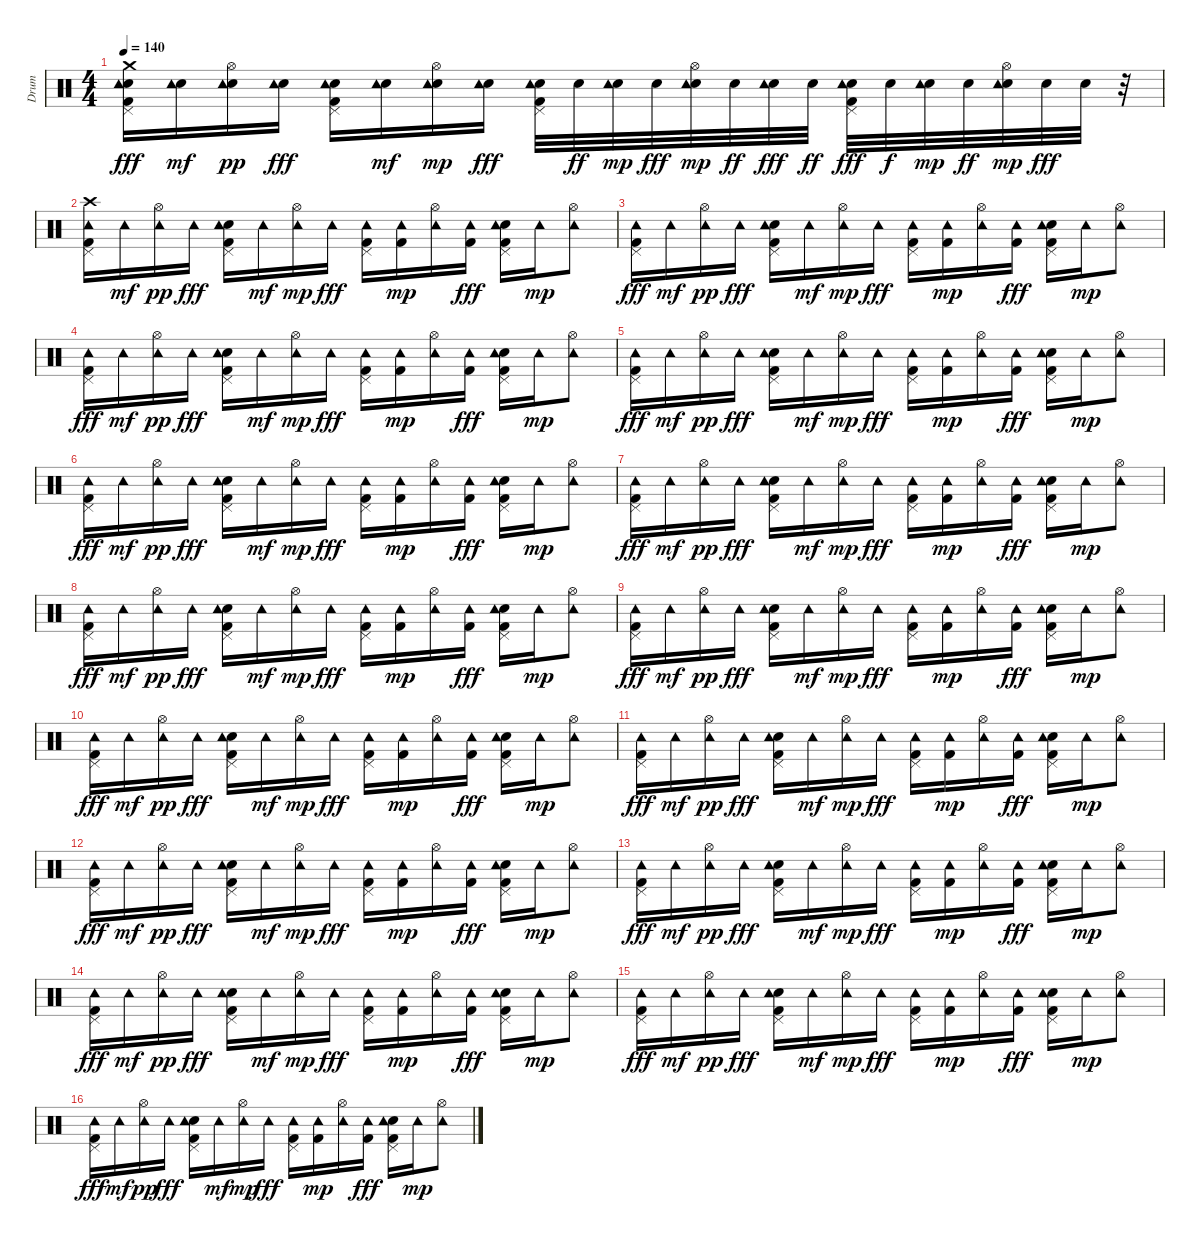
\track ("Drum" "Drum") {instrument percussion}
\staff {score}
\articulation defaults
\ts (4 4)
\tempo 140
\clef neutral
\ks c
("Snare (hit) 2" "Tambourine (hit)" "Crash medium (hit)" "Pedal Hi-Hat (hit)" "Kick (hit) 2").16{dy fff} ("Snare (hit) 2" "Tambourine (hit)").16{dy mf} ("Snare (hit) 2" "Hi-Hat (open)" "Tambourine (hit)").16{dy pp} ("Snare (hit) 2" "Tambourine (hit)").16{dy fff} ("Snare (hit) 2" "Tambourine (hit)" "Pedal Hi-Hat (hit)" "Kick (hit) 2").16 ("Snare (hit) 2" "Tambourine (hit)").16{dy mf} ("Snare (hit) 2" "Hi-Hat (open)" "Tambourine (hit)").16{dy mp} ("Snare (hit) 2" "Tambourine (hit)").16{dy fff} ("Snare (hit) 2" "Tambourine (hit)" "Pedal Hi-Hat (hit)" "Kick (hit) 2").32 "Snare (hit) 2".32{dy ff} ("Snare (hit) 2" "Tambourine (hit)").32{dy mp} "Snare (hit) 2".32{dy fff} ("Snare (hit) 2" "Hi-Hat (open)" "Tambourine (hit)").32{dy mp} "Snare (hit) 2".32{dy ff} ("Snare (hit) 2" "Tambourine (hit)").32{dy fff} "Snare (hit) 2".32{dy ff} ("Snare (hit) 2" "Tambourine (hit)" "Pedal Hi-Hat (hit)" "Kick (hit) 2").32{dy fff} "Snare (hit) 2".32{dy f} ("Snare (hit) 2" "Tambourine (hit)").32{dy mp} "Snare (hit) 2".32{dy ff} ("Snare (hit) 2" "Hi-Hat (open)" "Tambourine (hit)").32{dy mp} "Snare (hit) 2".32{dy fff} "Snare (hit) 2".32 r.32 |
("Kick (hit) 2" "Pedal Hi-Hat (hit)" "Tambourine (hit)" "Crash high (hit)").16 "Tambourine (hit)".16{dy mf} ("Hi-Hat (open)" "Tambourine (hit)").16{dy pp} "Tambourine (hit)".16{dy fff} ("Snare (hit) 2" "Tambourine (hit)" "Kick (hit) 2" "Pedal Hi-Hat (hit)").16 "Tambourine (hit)".16{dy mf} ("Hi-Hat (open)" "Tambourine (hit)").16{dy mp} "Tambourine (hit)".16{dy fff} ("Tambourine (hit)" "Kick (hit) 2" "Pedal Hi-Hat (hit)").16 ("Kick (hit) 2" "Tambourine (hit)").16{dy mp} ("Hi-Hat (open)" "Tambourine (hit)").16 ("Kick (hit) 2" "Tambourine (hit)").16{dy fff} ("Snare (hit) 2" "Tambourine (hit)" "Kick (hit) 2" "Pedal Hi-Hat (hit)").16 "Tambourine (hit)".16{dy mp} ("Hi-Hat (open)" "Tambourine (hit)").8 |
("Tambourine (hit)" "Kick (hit) 2" "Pedal Hi-Hat (hit)").16{dy fff} "Tambourine (hit)".16{dy mf} ("Hi-Hat (open)" "Tambourine (hit)").16{dy pp} "Tambourine (hit)".16{dy fff} ("Snare (hit) 2" "Tambourine (hit)" "Kick (hit) 2" "Pedal Hi-Hat (hit)").16 "Tambourine (hit)".16{dy mf} ("Hi-Hat (open)" "Tambourine (hit)").16{dy mp} "Tambourine (hit)".16{dy fff} ("Tambourine (hit)" "Kick (hit) 2" "Pedal Hi-Hat (hit)").16 ("Kick (hit) 2" "Tambourine (hit)").16{dy mp} ("Hi-Hat (open)" "Tambourine (hit)").16 ("Kick (hit) 2" "Tambourine (hit)").16{dy fff} ("Snare (hit) 2" "Tambourine (hit)" "Kick (hit) 2" "Pedal Hi-Hat (hit)").16 "Tambourine (hit)".16{dy mp} ("Hi-Hat (open)" "Tambourine (hit)").8 |
("Tambourine (hit)" "Kick (hit) 2" "Pedal Hi-Hat (hit)").16{dy fff} "Tambourine (hit)".16{dy mf} ("Hi-Hat (open)" "Tambourine (hit)").16{dy pp} "Tambourine (hit)".16{dy fff} ("Snare (hit) 2" "Tambourine (hit)" "Kick (hit) 2" "Pedal Hi-Hat (hit)").16 "Tambourine (hit)".16{dy mf} ("Hi-Hat (open)" "Tambourine (hit)").16{dy mp} "Tambourine (hit)".16{dy fff} ("Tambourine (hit)" "Kick (hit) 2" "Pedal Hi-Hat (hit)").16 ("Kick (hit) 2" "Tambourine (hit)").16{dy mp} ("Hi-Hat (open)" "Tambourine (hit)").16 ("Kick (hit) 2" "Tambourine (hit)").16{dy fff} ("Snare (hit) 2" "Tambourine (hit)" "Kick (hit) 2" "Pedal Hi-Hat (hit)").16 "Tambourine (hit)".16{dy mp} ("Hi-Hat (open)" "Tambourine (hit)").8 |
("Tambourine (hit)" "Kick (hit) 2" "Pedal Hi-Hat (hit)").16{dy fff} "Tambourine (hit)".16{dy mf} ("Hi-Hat (open)" "Tambourine (hit)").16{dy pp} "Tambourine (hit)".16{dy fff} ("Snare (hit) 2" "Tambourine (hit)" "Kick (hit) 2" "Pedal Hi-Hat (hit)").16 "Tambourine (hit)".16{dy mf} ("Hi-Hat (open)" "Tambourine (hit)").16{dy mp} "Tambourine (hit)".16{dy fff} ("Tambourine (hit)" "Kick (hit) 2" "Pedal Hi-Hat (hit)").16 ("Kick (hit) 2" "Tambourine (hit)").16{dy mp} ("Hi-Hat (open)" "Tambourine (hit)").16 ("Kick (hit) 2" "Tambourine (hit)").16{dy fff} ("Snare (hit) 2" "Tambourine (hit)" "Kick (hit) 2" "Pedal Hi-Hat (hit)").16 "Tambourine (hit)".16{dy mp} ("Hi-Hat (open)" "Tambourine (hit)").8 |
("Tambourine (hit)" "Kick (hit) 2" "Pedal Hi-Hat (hit)").16{dy fff} "Tambourine (hit)".16{dy mf} ("Hi-Hat (open)" "Tambourine (hit)").16{dy pp} "Tambourine (hit)".16{dy fff} ("Snare (hit) 2" "Tambourine (hit)" "Kick (hit) 2" "Pedal Hi-Hat (hit)").16 "Tambourine (hit)".16{dy mf} ("Hi-Hat (open)" "Tambourine (hit)").16{dy mp} "Tambourine (hit)".16{dy fff} ("Tambourine (hit)" "Kick (hit) 2" "Pedal Hi-Hat (hit)").16 ("Kick (hit) 2" "Tambourine (hit)").16{dy mp} ("Hi-Hat (open)" "Tambourine (hit)").16 ("Kick (hit) 2" "Tambourine (hit)").16{dy fff} ("Snare (hit) 2" "Tambourine (hit)" "Kick (hit) 2" "Pedal Hi-Hat (hit)").16 "Tambourine (hit)".16{dy mp} ("Hi-Hat (open)" "Tambourine (hit)").8 |
("Tambourine (hit)" "Kick (hit) 2" "Pedal Hi-Hat (hit)").16{dy fff} "Tambourine (hit)".16{dy mf} ("Hi-Hat (open)" "Tambourine (hit)").16{dy pp} "Tambourine (hit)".16{dy fff} ("Snare (hit) 2" "Tambourine (hit)" "Kick (hit) 2" "Pedal Hi-Hat (hit)").16 "Tambourine (hit)".16{dy mf} ("Hi-Hat (open)" "Tambourine (hit)").16{dy mp} "Tambourine (hit)".16{dy fff} ("Tambourine (hit)" "Kick (hit) 2" "Pedal Hi-Hat (hit)").16 ("Kick (hit) 2" "Tambourine (hit)").16{dy mp} ("Hi-Hat (open)" "Tambourine (hit)").16 ("Kick (hit) 2" "Tambourine (hit)").16{dy fff} ("Snare (hit) 2" "Tambourine (hit)" "Kick (hit) 2" "Pedal Hi-Hat (hit)").16 "Tambourine (hit)".16{dy mp} ("Hi-Hat (open)" "Tambourine (hit)").8 |
("Tambourine (hit)" "Kick (hit) 2" "Pedal Hi-Hat (hit)").16{dy fff} "Tambourine (hit)".16{dy mf} ("Hi-Hat (open)" "Tambourine (hit)").16{dy pp} "Tambourine (hit)".16{dy fff} ("Snare (hit) 2" "Tambourine (hit)" "Kick (hit) 2" "Pedal Hi-Hat (hit)").16 "Tambourine (hit)".16{dy mf} ("Hi-Hat (open)" "Tambourine (hit)").16{dy mp} "Tambourine (hit)".16{dy fff} ("Tambourine (hit)" "Kick (hit) 2" "Pedal Hi-Hat (hit)").16 ("Kick (hit) 2" "Tambourine (hit)").16{dy mp} ("Hi-Hat (open)" "Tambourine (hit)").16 ("Kick (hit) 2" "Tambourine (hit)").16{dy fff} ("Snare (hit) 2" "Tambourine (hit)" "Kick (hit) 2" "Pedal Hi-Hat (hit)").16 "Tambourine (hit)".16{dy mp} ("Hi-Hat (open)" "Tambourine (hit)").8 |
("Tambourine (hit)" "Kick (hit) 2" "Pedal Hi-Hat (hit)").16{dy fff} "Tambourine (hit)".16{dy mf} ("Hi-Hat (open)" "Tambourine (hit)").16{dy pp} "Tambourine (hit)".16{dy fff} ("Snare (hit) 2" "Tambourine (hit)" "Kick (hit) 2" "Pedal Hi-Hat (hit)").16 "Tambourine (hit)".16{dy mf} ("Hi-Hat (open)" "Tambourine (hit)").16{dy mp} "Tambourine (hit)".16{dy fff} ("Tambourine (hit)" "Kick (hit) 2" "Pedal Hi-Hat (hit)").16 ("Kick (hit) 2" "Tambourine (hit)").16{dy mp} ("Hi-Hat (open)" "Tambourine (hit)").16 ("Kick (hit) 2" "Tambourine (hit)").16{dy fff} ("Snare (hit) 2" "Tambourine (hit)" "Kick (hit) 2" "Pedal Hi-Hat (hit)").16 "Tambourine (hit)".16{dy mp} ("Hi-Hat (open)" "Tambourine (hit)").8 |
("Tambourine (hit)" "Kick (hit) 2" "Pedal Hi-Hat (hit)").16{dy fff} "Tambourine (hit)".16{dy mf} ("Hi-Hat (open)" "Tambourine (hit)").16{dy pp} "Tambourine (hit)".16{dy fff} ("Snare (hit) 2" "Tambourine (hit)" "Kick (hit) 2" "Pedal Hi-Hat (hit)").16 "Tambourine (hit)".16{dy mf} ("Hi-Hat (open)" "Tambourine (hit)").16{dy mp} "Tambourine (hit)".16{dy fff} ("Tambourine (hit)" "Kick (hit) 2" "Pedal Hi-Hat (hit)").16 ("Kick (hit) 2" "Tambourine (hit)").16{dy mp} ("Hi-Hat (open)" "Tambourine (hit)").16 ("Kick (hit) 2" "Tambourine (hit)").16{dy fff} ("Snare (hit) 2" "Tambourine (hit)" "Kick (hit) 2" "Pedal Hi-Hat (hit)").16 "Tambourine (hit)".16{dy mp} ("Hi-Hat (open)" "Tambourine (hit)").8 |
("Tambourine (hit)" "Kick (hit) 2" "Pedal Hi-Hat (hit)").16{dy fff} "Tambourine (hit)".16{dy mf} ("Hi-Hat (open)" "Tambourine (hit)").16{dy pp} "Tambourine (hit)".16{dy fff} ("Snare (hit) 2" "Tambourine (hit)" "Kick (hit) 2" "Pedal Hi-Hat (hit)").16 "Tambourine (hit)".16{dy mf} ("Hi-Hat (open)" "Tambourine (hit)").16{dy mp} "Tambourine (hit)".16{dy fff} ("Tambourine (hit)" "Kick (hit) 2" "Pedal Hi-Hat (hit)").16 ("Kick (hit) 2" "Tambourine (hit)").16{dy mp} ("Hi-Hat (open)" "Tambourine (hit)").16 ("Kick (hit) 2" "Tambourine (hit)").16{dy fff} ("Snare (hit) 2" "Tambourine (hit)" "Kick (hit) 2" "Pedal Hi-Hat (hit)").16 "Tambourine (hit)".16{dy mp} ("Hi-Hat (open)" "Tambourine (hit)").8 |
("Tambourine (hit)" "Kick (hit) 2" "Pedal Hi-Hat (hit)").16{dy fff} "Tambourine (hit)".16{dy mf} ("Hi-Hat (open)" "Tambourine (hit)").16{dy pp} "Tambourine (hit)".16{dy fff} ("Snare (hit) 2" "Tambourine (hit)" "Kick (hit) 2" "Pedal Hi-Hat (hit)").16 "Tambourine (hit)".16{dy mf} ("Hi-Hat (open)" "Tambourine (hit)").16{dy mp} "Tambourine (hit)".16{dy fff} ("Tambourine (hit)" "Kick (hit) 2" "Pedal Hi-Hat (hit)").16 ("Kick (hit) 2" "Tambourine (hit)").16{dy mp} ("Hi-Hat (open)" "Tambourine (hit)").16 ("Kick (hit) 2" "Tambourine (hit)").16{dy fff} ("Snare (hit) 2" "Tambourine (hit)" "Kick (hit) 2" "Pedal Hi-Hat (hit)").16 "Tambourine (hit)".16{dy mp} ("Hi-Hat (open)" "Tambourine (hit)").8 |
("Tambourine (hit)" "Kick (hit) 2" "Pedal Hi-Hat (hit)").16{dy fff} "Tambourine (hit)".16{dy mf} ("Hi-Hat (open)" "Tambourine (hit)").16{dy pp} "Tambourine (hit)".16{dy fff} ("Snare (hit) 2" "Tambourine (hit)" "Kick (hit) 2" "Pedal Hi-Hat (hit)").16 "Tambourine (hit)".16{dy mf} ("Hi-Hat (open)" "Tambourine (hit)").16{dy mp} "Tambourine (hit)".16{dy fff} ("Tambourine (hit)" "Kick (hit) 2" "Pedal Hi-Hat (hit)").16 ("Kick (hit) 2" "Tambourine (hit)").16{dy mp} ("Hi-Hat (open)" "Tambourine (hit)").16 ("Kick (hit) 2" "Tambourine (hit)").16{dy fff} ("Snare (hit) 2" "Tambourine (hit)" "Kick (hit) 2" "Pedal Hi-Hat (hit)").16 "Tambourine (hit)".16{dy mp} ("Hi-Hat (open)" "Tambourine (hit)").8 |
("Tambourine (hit)" "Kick (hit) 2" "Pedal Hi-Hat (hit)").16{dy fff} "Tambourine (hit)".16{dy mf} ("Hi-Hat (open)" "Tambourine (hit)").16{dy pp} "Tambourine (hit)".16{dy fff} ("Snare (hit) 2" "Tambourine (hit)" "Kick (hit) 2" "Pedal Hi-Hat (hit)").16 "Tambourine (hit)".16{dy mf} ("Hi-Hat (open)" "Tambourine (hit)").16{dy mp} "Tambourine (hit)".16{dy fff} ("Tambourine (hit)" "Kick (hit) 2" "Pedal Hi-Hat (hit)").16 ("Kick (hit) 2" "Tambourine (hit)").16{dy mp} ("Hi-Hat (open)" "Tambourine (hit)").16 ("Kick (hit) 2" "Tambourine (hit)").16{dy fff} ("Snare (hit) 2" "Tambourine (hit)" "Kick (hit) 2" "Pedal Hi-Hat (hit)").16 "Tambourine (hit)".16{dy mp} ("Hi-Hat (open)" "Tambourine (hit)").8 |
("Tambourine (hit)" "Kick (hit) 2" "Pedal Hi-Hat (hit)").16{dy fff} "Tambourine (hit)".16{dy mf} ("Hi-Hat (open)" "Tambourine (hit)").16{dy pp} "Tambourine (hit)".16{dy fff} ("Snare (hit) 2" "Tambourine (hit)" "Kick (hit) 2" "Pedal Hi-Hat (hit)").16 "Tambourine (hit)".16{dy mf} ("Hi-Hat (open)" "Tambourine (hit)").16{dy mp} "Tambourine (hit)".16{dy fff} ("Tambourine (hit)" "Kick (hit) 2" "Pedal Hi-Hat (hit)").16 ("Kick (hit) 2" "Tambourine (hit)").16{dy mp} ("Hi-Hat (open)" "Tambourine (hit)").16 ("Kick (hit) 2" "Tambourine (hit)").16{dy fff} ("Snare (hit) 2" "Tambourine (hit)" "Kick (hit) 2" "Pedal Hi-Hat (hit)").16 "Tambourine (hit)".16{dy mp} ("Hi-Hat (open)" "Tambourine (hit)").8 |
("Tambourine (hit)" "Kick (hit) 2" "Pedal Hi-Hat (hit)").16{dy fff} "Tambourine (hit)".16{dy mf} ("Hi-Hat (open)" "Tambourine (hit)").16{dy pp} "Tambourine (hit)".16{dy fff} ("Snare (hit) 2" "Tambourine (hit)" "Kick (hit) 2" "Pedal Hi-Hat (hit)").16 "Tambourine (hit)".16{dy mf} ("Hi-Hat (open)" "Tambourine (hit)").16{dy mp} "Tambourine (hit)".16{dy fff} ("Tambourine (hit)" "Kick (hit) 2" "Pedal Hi-Hat (hit)").16 ("Kick (hit) 2" "Tambourine (hit)").16{dy mp} ("Hi-Hat (open)" "Tambourine (hit)").16 ("Kick (hit) 2" "Tambourine (hit)").16{dy fff} ("Snare (hit) 2" "Tambourine (hit)" "Kick (hit) 2" "Pedal Hi-Hat (hit)").16 "Tambourine (hit)".16{dy mp} ("Hi-Hat (open)" "Tambourine (hit)").8
